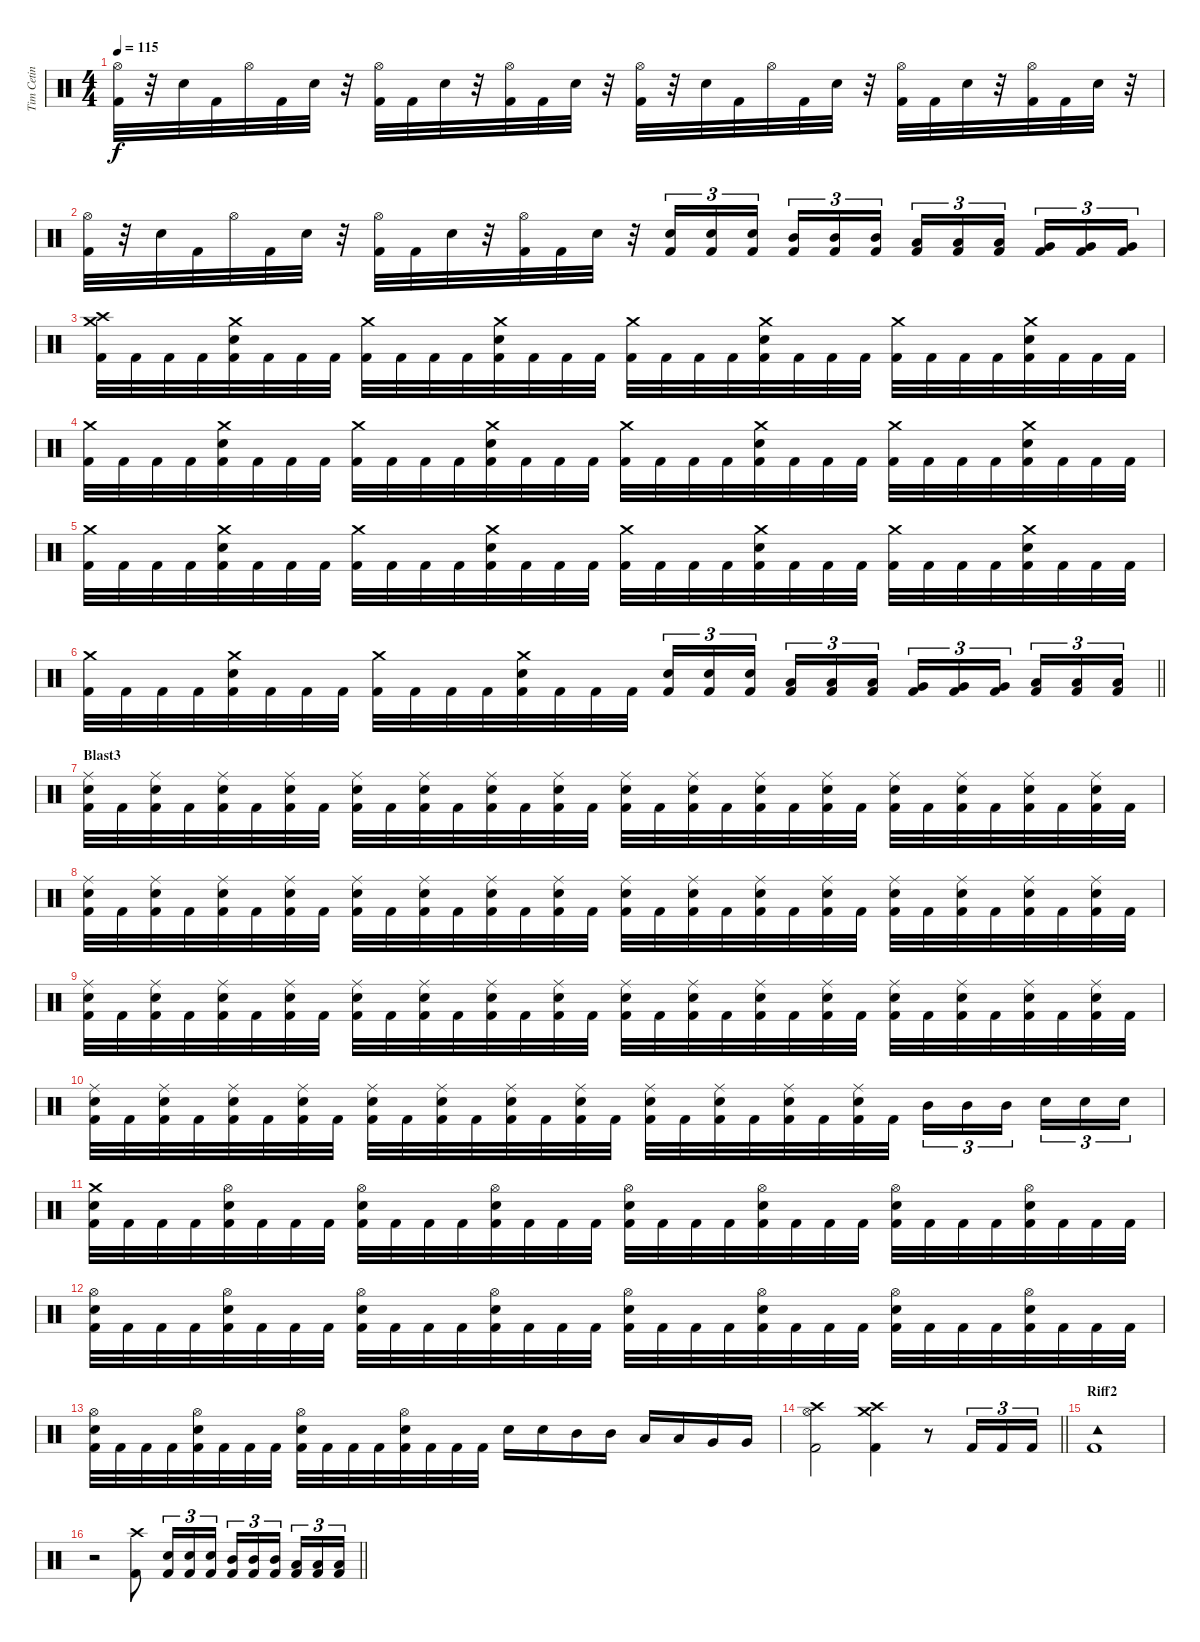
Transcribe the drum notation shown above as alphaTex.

\track ("Tim Cetin" "Tim Cetin") {instrument percussion}
\staff {score}
\articulation defaults
\ts (4 4)
\tempo 115
\clef neutral
\ks c
("Hi-Hat (open)" "Kick (hit) 2").32{dy f} r.32 "Snare (hit) 2".32 "Kick (hit) 2".32 "Hi-Hat (open)".32 "Kick (hit) 2".32 "Snare (hit) 2".32 r.32 ("Hi-Hat (open)" "Kick (hit) 2").32 "Kick (hit) 2".32 "Snare (hit) 2".32 r.32 ("Hi-Hat (open)" "Kick (hit) 2").32 "Kick (hit) 2".32 "Snare (hit) 2".32 r.32 ("Hi-Hat (open)" "Kick (hit) 2").32 r.32 "Snare (hit) 2".32 "Kick (hit) 2".32 "Hi-Hat (open)".32 "Kick (hit) 2".32 "Snare (hit) 2".32 r.32 ("Hi-Hat (open)" "Kick (hit) 2").32 "Kick (hit) 2".32 "Snare (hit) 2".32 r.32 ("Hi-Hat (open)" "Kick (hit) 2").32 "Kick (hit) 2".32 "Snare (hit) 2".32 r.32 |
("Hi-Hat (open)" "Kick (hit) 2").32 r.32 "Snare (hit) 2".32 "Kick (hit) 2".32 "Hi-Hat (open)".32 "Kick (hit) 2".32 "Snare (hit) 2".32 r.32 ("Hi-Hat (open)" "Kick (hit) 2").32 "Kick (hit) 2".32 "Snare (hit) 2".32 r.32 ("Hi-Hat (open)" "Kick (hit) 2").32 "Kick (hit) 2".32 "Snare (hit) 2".32 r.32 ("Snare (hit) 2" "Kick (hit) 2").16{tu (3 2)} ("Snare (hit) 2" "Kick (hit) 2").16{tu (3 2)} ("Snare (hit) 2" "Kick (hit) 2").16{tu (3 2) beam splitsecondary} ("Mid Tom (hit)" "Kick (hit) 2").16{tu (3 2)} ("Mid Tom (hit)" "Kick (hit) 2").16{tu (3 2)} ("Mid Tom (hit)" "Kick (hit) 2").16{tu (3 2)} ("Low Tom (hit)" "Kick (hit) 2").16{tu (3 2)} ("Low Tom (hit)" "Kick (hit) 2").16{tu (3 2)} ("Low Tom (hit)" "Kick (hit) 2").16{tu (3 2) beam splitsecondary} ("Very Low Tom (hit)" "Kick (hit) 2").16{tu (3 2)} ("Very Low Tom (hit)" "Kick (hit) 2").16{tu (3 2)} ("Very Low Tom (hit)" "Kick (hit) 2").16{tu (3 2)} |
("Crash medium (hit)" "Crash high (hit)" "Kick (hit) 2").32 "Kick (hit) 2".32 "Kick (hit) 2".32 "Kick (hit) 2".32 ("Crash medium (hit)" "Snare (hit) 2" "Kick (hit) 2").32 "Kick (hit) 2".32 "Kick (hit) 2".32 "Kick (hit) 2".32 ("Crash medium (hit)" "Kick (hit) 2").32 "Kick (hit) 2".32 "Kick (hit) 2".32 "Kick (hit) 2".32 ("Crash medium (hit)" "Snare (hit) 2" "Kick (hit) 2").32 "Kick (hit) 2".32 "Kick (hit) 2".32 "Kick (hit) 2".32 ("Crash medium (hit)" "Kick (hit) 2").32 "Kick (hit) 2".32 "Kick (hit) 2".32 "Kick (hit) 2".32 ("Crash medium (hit)" "Snare (hit) 2" "Kick (hit) 2").32 "Kick (hit) 2".32 "Kick (hit) 2".32 "Kick (hit) 2".32 ("Crash medium (hit)" "Kick (hit) 2").32 "Kick (hit) 2".32 "Kick (hit) 2".32 "Kick (hit) 2".32 ("Crash medium (hit)" "Snare (hit) 2" "Kick (hit) 2").32 "Kick (hit) 2".32 "Kick (hit) 2".32 "Kick (hit) 2".32 |
("Crash medium (hit)" "Kick (hit) 2").32 "Kick (hit) 2".32 "Kick (hit) 2".32 "Kick (hit) 2".32 ("Crash medium (hit)" "Snare (hit) 2" "Kick (hit) 2").32 "Kick (hit) 2".32 "Kick (hit) 2".32 "Kick (hit) 2".32 ("Crash medium (hit)" "Kick (hit) 2").32 "Kick (hit) 2".32 "Kick (hit) 2".32 "Kick (hit) 2".32 ("Crash medium (hit)" "Snare (hit) 2" "Kick (hit) 2").32 "Kick (hit) 2".32 "Kick (hit) 2".32 "Kick (hit) 2".32 ("Crash medium (hit)" "Kick (hit) 2").32 "Kick (hit) 2".32 "Kick (hit) 2".32 "Kick (hit) 2".32 ("Crash medium (hit)" "Snare (hit) 2" "Kick (hit) 2").32 "Kick (hit) 2".32 "Kick (hit) 2".32 "Kick (hit) 2".32 ("Crash medium (hit)" "Kick (hit) 2").32 "Kick (hit) 2".32 "Kick (hit) 2".32 "Kick (hit) 2".32 ("Crash medium (hit)" "Snare (hit) 2" "Kick (hit) 2").32 "Kick (hit) 2".32 "Kick (hit) 2".32 "Kick (hit) 2".32 |
("Crash medium (hit)" "Kick (hit) 2").32 "Kick (hit) 2".32 "Kick (hit) 2".32 "Kick (hit) 2".32 ("Crash medium (hit)" "Snare (hit) 2" "Kick (hit) 2").32 "Kick (hit) 2".32 "Kick (hit) 2".32 "Kick (hit) 2".32 ("Crash medium (hit)" "Kick (hit) 2").32 "Kick (hit) 2".32 "Kick (hit) 2".32 "Kick (hit) 2".32 ("Crash medium (hit)" "Snare (hit) 2" "Kick (hit) 2").32 "Kick (hit) 2".32 "Kick (hit) 2".32 "Kick (hit) 2".32 ("Crash medium (hit)" "Kick (hit) 2").32 "Kick (hit) 2".32 "Kick (hit) 2".32 "Kick (hit) 2".32 ("Crash medium (hit)" "Snare (hit) 2" "Kick (hit) 2").32 "Kick (hit) 2".32 "Kick (hit) 2".32 "Kick (hit) 2".32 ("Crash medium (hit)" "Kick (hit) 2").32 "Kick (hit) 2".32 "Kick (hit) 2".32 "Kick (hit) 2".32 ("Crash medium (hit)" "Snare (hit) 2" "Kick (hit) 2").32 "Kick (hit) 2".32 "Kick (hit) 2".32 "Kick (hit) 2".32 |
\barLineRight lightlight
("Crash medium (hit)" "Kick (hit) 2").32 "Kick (hit) 2".32 "Kick (hit) 2".32 "Kick (hit) 2".32 ("Crash medium (hit)" "Snare (hit) 2" "Kick (hit) 2").32 "Kick (hit) 2".32 "Kick (hit) 2".32 "Kick (hit) 2".32 ("Crash medium (hit)" "Kick (hit) 2").32 "Kick (hit) 2".32 "Kick (hit) 2".32 "Kick (hit) 2".32 ("Crash medium (hit)" "Snare (hit) 2" "Kick (hit) 2").32 "Kick (hit) 2".32 "Kick (hit) 2".32 "Kick (hit) 2".32 ("Snare (hit) 2" "Kick (hit) 2").16{tu (3 2)} ("Snare (hit) 2" "Kick (hit) 2").16{tu (3 2)} ("Snare (hit) 2" "Kick (hit) 2").16{tu (3 2) beam splitsecondary} ("Low Tom (hit)" "Kick (hit) 2").16{tu (3 2)} ("Low Tom (hit)" "Kick (hit) 2").16{tu (3 2)} ("Low Tom (hit)" "Kick (hit) 2").16{tu (3 2)} ("Very Low Tom (hit)" "Kick (hit) 2").16{tu (3 2)} ("Very Low Tom (hit)" "Kick (hit) 2").16{tu (3 2)} ("Very Low Tom (hit)" "Kick (hit) 2").16{tu (3 2) beam splitsecondary} ("Low Floor Tom (hit)" "Kick (hit) 2").16{tu (3 2)} ("Low Floor Tom (hit)" "Kick (hit) 2").16{tu (3 2)} ("Low Floor Tom (hit)" "Kick (hit) 2").16{tu (3 2)} |
\section ("" "Blast3")
("Ride (middle)" "Snare (hit) 2" "Kick (hit) 2").32 "Kick (hit) 2".32 ("Ride (middle)" "Snare (hit) 2" "Kick (hit) 2").32 "Kick (hit) 2".32 ("Ride (middle)" "Snare (hit) 2" "Kick (hit) 2").32 "Kick (hit) 2".32 ("Ride (middle)" "Snare (hit) 2" "Kick (hit) 2").32 "Kick (hit) 2".32 ("Ride (middle)" "Snare (hit) 2" "Kick (hit) 2").32 "Kick (hit) 2".32 ("Ride (middle)" "Snare (hit) 2" "Kick (hit) 2").32 "Kick (hit) 2".32 ("Ride (middle)" "Snare (hit) 2" "Kick (hit) 2").32 "Kick (hit) 2".32 ("Ride (middle)" "Snare (hit) 2" "Kick (hit) 2").32 "Kick (hit) 2".32 ("Ride (middle)" "Snare (hit) 2" "Kick (hit) 2").32 "Kick (hit) 2".32 ("Ride (middle)" "Snare (hit) 2" "Kick (hit) 2").32 "Kick (hit) 2".32 ("Ride (middle)" "Snare (hit) 2" "Kick (hit) 2").32 "Kick (hit) 2".32 ("Ride (middle)" "Snare (hit) 2" "Kick (hit) 2").32 "Kick (hit) 2".32 ("Ride (middle)" "Snare (hit) 2" "Kick (hit) 2").32 "Kick (hit) 2".32 ("Ride (middle)" "Snare (hit) 2" "Kick (hit) 2").32 "Kick (hit) 2".32 ("Ride (middle)" "Snare (hit) 2" "Kick (hit) 2").32 "Kick (hit) 2".32 ("Ride (middle)" "Snare (hit) 2" "Kick (hit) 2").32 "Kick (hit) 2".32 |
("Ride (middle)" "Snare (hit) 2" "Kick (hit) 2").32 "Kick (hit) 2".32 ("Ride (middle)" "Snare (hit) 2" "Kick (hit) 2").32 "Kick (hit) 2".32 ("Ride (middle)" "Snare (hit) 2" "Kick (hit) 2").32 "Kick (hit) 2".32 ("Ride (middle)" "Snare (hit) 2" "Kick (hit) 2").32 "Kick (hit) 2".32 ("Ride (middle)" "Snare (hit) 2" "Kick (hit) 2").32 "Kick (hit) 2".32 ("Ride (middle)" "Snare (hit) 2" "Kick (hit) 2").32 "Kick (hit) 2".32 ("Ride (middle)" "Snare (hit) 2" "Kick (hit) 2").32 "Kick (hit) 2".32 ("Ride (middle)" "Snare (hit) 2" "Kick (hit) 2").32 "Kick (hit) 2".32 ("Ride (middle)" "Snare (hit) 2" "Kick (hit) 2").32 "Kick (hit) 2".32 ("Ride (middle)" "Snare (hit) 2" "Kick (hit) 2").32 "Kick (hit) 2".32 ("Ride (middle)" "Snare (hit) 2" "Kick (hit) 2").32 "Kick (hit) 2".32 ("Ride (middle)" "Snare (hit) 2" "Kick (hit) 2").32 "Kick (hit) 2".32 ("Ride (middle)" "Snare (hit) 2" "Kick (hit) 2").32 "Kick (hit) 2".32 ("Ride (middle)" "Snare (hit) 2" "Kick (hit) 2").32 "Kick (hit) 2".32 ("Ride (middle)" "Snare (hit) 2" "Kick (hit) 2").32 "Kick (hit) 2".32 ("Ride (middle)" "Snare (hit) 2" "Kick (hit) 2").32 "Kick (hit) 2".32 |
("Ride (middle)" "Snare (hit) 2" "Kick (hit) 2").32 "Kick (hit) 2".32 ("Ride (middle)" "Snare (hit) 2" "Kick (hit) 2").32 "Kick (hit) 2".32 ("Ride (middle)" "Snare (hit) 2" "Kick (hit) 2").32 "Kick (hit) 2".32 ("Ride (middle)" "Snare (hit) 2" "Kick (hit) 2").32 "Kick (hit) 2".32 ("Ride (middle)" "Snare (hit) 2" "Kick (hit) 2").32 "Kick (hit) 2".32 ("Ride (middle)" "Snare (hit) 2" "Kick (hit) 2").32 "Kick (hit) 2".32 ("Ride (middle)" "Snare (hit) 2" "Kick (hit) 2").32 "Kick (hit) 2".32 ("Ride (middle)" "Snare (hit) 2" "Kick (hit) 2").32 "Kick (hit) 2".32 ("Ride (middle)" "Snare (hit) 2" "Kick (hit) 2").32 "Kick (hit) 2".32 ("Ride (middle)" "Snare (hit) 2" "Kick (hit) 2").32 "Kick (hit) 2".32 ("Ride (middle)" "Snare (hit) 2" "Kick (hit) 2").32 "Kick (hit) 2".32 ("Ride (middle)" "Snare (hit) 2" "Kick (hit) 2").32 "Kick (hit) 2".32 ("Ride (middle)" "Snare (hit) 2" "Kick (hit) 2").32 "Kick (hit) 2".32 ("Ride (middle)" "Snare (hit) 2" "Kick (hit) 2").32 "Kick (hit) 2".32 ("Ride (middle)" "Snare (hit) 2" "Kick (hit) 2").32 "Kick (hit) 2".32 ("Ride (middle)" "Snare (hit) 2" "Kick (hit) 2").32 "Kick (hit) 2".32 |
("Ride (middle)" "Snare (hit) 2" "Kick (hit) 2").32 "Kick (hit) 2".32 ("Ride (middle)" "Snare (hit) 2" "Kick (hit) 2").32 "Kick (hit) 2".32 ("Ride (middle)" "Snare (hit) 2" "Kick (hit) 2").32 "Kick (hit) 2".32 ("Ride (middle)" "Snare (hit) 2" "Kick (hit) 2").32 "Kick (hit) 2".32 ("Ride (middle)" "Snare (hit) 2" "Kick (hit) 2").32 "Kick (hit) 2".32 ("Ride (middle)" "Snare (hit) 2" "Kick (hit) 2").32 "Kick (hit) 2".32 ("Ride (middle)" "Snare (hit) 2" "Kick (hit) 2").32 "Kick (hit) 2".32 ("Ride (middle)" "Snare (hit) 2" "Kick (hit) 2").32 "Kick (hit) 2".32 ("Ride (middle)" "Snare (hit) 2" "Kick (hit) 2").32 "Kick (hit) 2".32 ("Ride (middle)" "Snare (hit) 2" "Kick (hit) 2").32 "Kick (hit) 2".32 ("Ride (middle)" "Snare (hit) 2" "Kick (hit) 2").32 "Kick (hit) 2".32 ("Ride (middle)" "Snare (hit) 2" "Kick (hit) 2").32 "Kick (hit) 2".32 "Mid Tom (hit)".16{tu (3 2)} "Mid Tom (hit)".16{tu (3 2)} "Mid Tom (hit)".16{tu (3 2) beam splitsecondary} "Snare (hit) 2".16{tu (3 2)} "Snare (hit) 2".16{tu (3 2)} "Snare (hit) 2".16{tu (3 2)} |
("Crash medium (hit)" "Snare (hit) 2" "Kick (hit) 2").32 "Kick (hit) 2".32 "Kick (hit) 2".32 "Kick (hit) 2".32 ("Hi-Hat (open)" "Snare (hit) 2" "Kick (hit) 2").32 "Kick (hit) 2".32 "Kick (hit) 2".32 "Kick (hit) 2".32 ("Hi-Hat (open)" "Snare (hit) 2" "Kick (hit) 2").32 "Kick (hit) 2".32 "Kick (hit) 2".32 "Kick (hit) 2".32 ("Hi-Hat (open)" "Snare (hit) 2" "Kick (hit) 2").32 "Kick (hit) 2".32 "Kick (hit) 2".32 "Kick (hit) 2".32 ("Hi-Hat (open)" "Snare (hit) 2" "Kick (hit) 2").32 "Kick (hit) 2".32 "Kick (hit) 2".32 "Kick (hit) 2".32 ("Hi-Hat (open)" "Snare (hit) 2" "Kick (hit) 2").32 "Kick (hit) 2".32 "Kick (hit) 2".32 "Kick (hit) 2".32 ("Hi-Hat (open)" "Snare (hit) 2" "Kick (hit) 2").32 "Kick (hit) 2".32 "Kick (hit) 2".32 "Kick (hit) 2".32 ("Hi-Hat (open)" "Snare (hit) 2" "Kick (hit) 2").32 "Kick (hit) 2".32 "Kick (hit) 2".32 "Kick (hit) 2".32 |
("Hi-Hat (open)" "Snare (hit) 2" "Kick (hit) 2").32 "Kick (hit) 2".32 "Kick (hit) 2".32 "Kick (hit) 2".32 ("Hi-Hat (open)" "Snare (hit) 2" "Kick (hit) 2").32 "Kick (hit) 2".32 "Kick (hit) 2".32 "Kick (hit) 2".32 ("Hi-Hat (open)" "Snare (hit) 2" "Kick (hit) 2").32 "Kick (hit) 2".32 "Kick (hit) 2".32 "Kick (hit) 2".32 ("Hi-Hat (open)" "Snare (hit) 2" "Kick (hit) 2").32 "Kick (hit) 2".32 "Kick (hit) 2".32 "Kick (hit) 2".32 ("Hi-Hat (open)" "Snare (hit) 2" "Kick (hit) 2").32 "Kick (hit) 2".32 "Kick (hit) 2".32 "Kick (hit) 2".32 ("Hi-Hat (open)" "Snare (hit) 2" "Kick (hit) 2").32 "Kick (hit) 2".32 "Kick (hit) 2".32 "Kick (hit) 2".32 ("Hi-Hat (open)" "Snare (hit) 2" "Kick (hit) 2").32 "Kick (hit) 2".32 "Kick (hit) 2".32 "Kick (hit) 2".32 ("Hi-Hat (open)" "Snare (hit) 2" "Kick (hit) 2").32 "Kick (hit) 2".32 "Kick (hit) 2".32 "Kick (hit) 2".32 |
("Hi-Hat (open)" "Snare (hit) 2" "Kick (hit) 2").32 "Kick (hit) 2".32 "Kick (hit) 2".32 "Kick (hit) 2".32 ("Hi-Hat (open)" "Snare (hit) 2" "Kick (hit) 2").32 "Kick (hit) 2".32 "Kick (hit) 2".32 "Kick (hit) 2".32 ("Hi-Hat (open)" "Snare (hit) 2" "Kick (hit) 2").32 "Kick (hit) 2".32 "Kick (hit) 2".32 "Kick (hit) 2".32 ("Hi-Hat (open)" "Snare (hit) 2" "Kick (hit) 2").32 "Kick (hit) 2".32 "Kick (hit) 2".32 "Kick (hit) 2".32 "Snare (hit) 2".16 "Snare (hit) 2".16 "Mid Tom (hit)".16 "Mid Tom (hit)".16 "Low Tom (hit)".16 "Low Tom (hit)".16 "Very Low Tom (hit)".16 "Very Low Tom (hit)".16 |
\barLineRight lightlight
("Crash high (hit)" "Hi-Hat (open)" "Kick (hit) 2").2 ("Crash high (hit)" "Crash medium (hit)" "Kick (hit) 2").4 r.8 "Kick (hit) 2".16{tu (3 2)} "Kick (hit) 2".16{tu (3 2)} "Kick (hit) 2".16{tu (3 2)} |
\section ("" "Riff2")
("Tambourine (hit)" "Kick (hit) 2").1 |
\barLineRight lightlight
r.2 ("Crash high (hit)" "Kick (hit) 2").8 ("Snare (hit) 2" "Kick (hit) 2").16{tu (3 2)} ("Snare (hit) 2" "Kick (hit) 2").16{tu (3 2)} ("Snare (hit) 2" "Kick (hit) 2").16{tu (3 2)} ("Mid Tom (hit)" "Kick (hit) 2").16{tu (3 2)} ("Mid Tom (hit)" "Kick (hit) 2").16{tu (3 2)} ("Mid Tom (hit)" "Kick (hit) 2").16{tu (3 2) beam splitsecondary} ("Low Tom (hit)" "Kick (hit) 2").16{tu (3 2)} ("Low Tom (hit)" "Kick (hit) 2").16{tu (3 2)} ("Low Tom (hit)" "Kick (hit) 2").16{tu (3 2)}
